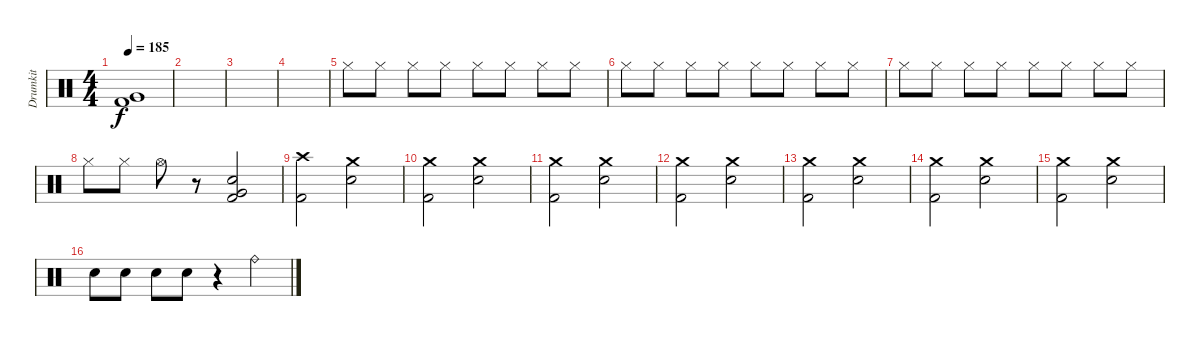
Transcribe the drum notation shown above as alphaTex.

\track ("Drumkit" "Drumkit") {instrument percussion}
\staff {score}
\articulation defaults
\ts (4 4)
\tempo 185
\clef neutral
\ks c
("Very Low Tom (hit)" "Kick (hit) 2").1{dy f} |
|
|
|
"Hi-Hat (closed)".8 "Hi-Hat (closed)".8 "Hi-Hat (closed)".8 "Hi-Hat (closed)".8 "Hi-Hat (closed)".8 "Hi-Hat (closed)".8 "Hi-Hat (closed)".8 "Hi-Hat (closed)".8 |
"Hi-Hat (closed)".8 "Hi-Hat (closed)".8 "Hi-Hat (closed)".8 "Hi-Hat (closed)".8 "Hi-Hat (closed)".8 "Hi-Hat (closed)".8 "Hi-Hat (closed)".8 "Hi-Hat (closed)".8 |
"Hi-Hat (closed)".8 "Hi-Hat (closed)".8 "Hi-Hat (closed)".8 "Hi-Hat (closed)".8 "Hi-Hat (closed)".8 "Hi-Hat (closed)".8 "Hi-Hat (closed)".8 "Hi-Hat (closed)".8 |
"Hi-Hat (closed)".8 "Hi-Hat (closed)".8 "Hi-Hat (open)".8 r.8 ("Electric Snare (hit)" "Very Low Tom (hit)" "Kick (hit) 2").2 |
("Crash high (hit)" "Kick (hit) 2").2 ("Crash medium (hit)" "Electric Snare (hit)").2 |
("Crash medium (hit)" "Kick (hit) 2").2 ("Crash medium (hit)" "Electric Snare (hit)").2 |
("Crash medium (hit)" "Kick (hit) 2").2 ("Crash medium (hit)" "Electric Snare (hit)").2 |
("Crash medium (hit)" "Kick (hit) 2").2 ("Crash medium (hit)" "Electric Snare (hit)").2 |
("Crash medium (hit)" "Kick (hit) 2").2 ("Crash medium (hit)" "Electric Snare (hit)").2 |
("Crash medium (hit)" "Kick (hit) 2").2 ("Crash medium (hit)" "Electric Snare (hit)").2 |
("Crash medium (hit)" "Kick (hit) 2").2 ("Crash medium (hit)" "Electric Snare (hit)").2 |
"Electric Snare (hit)".8 "Electric Snare (hit)".8 "Electric Snare (hit)".8 "Electric Snare (hit)".8 r.4 "Ride (bell)".4
